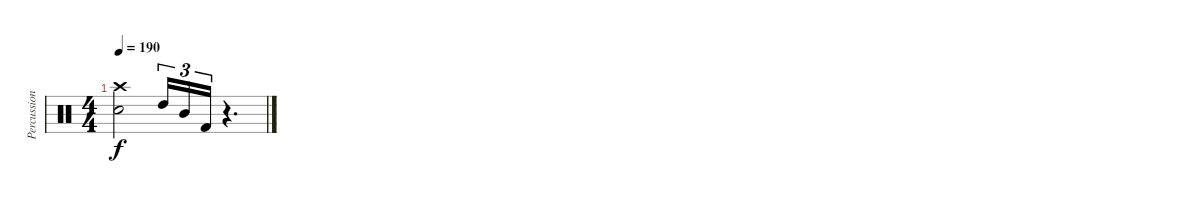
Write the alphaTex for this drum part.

\track ("Percussion" "Percussion") {instrument percussion}
\staff {score}
\articulation defaults
\ts (4 4)
\tempo 190
\clef neutral
\ks c
("Electric Snare (hit)" "Crash high (hit)").2{dy f} "High Tom (hit)".16{tu (3 2)} "Mid Tom (hit)".16{tu (3 2)} "Kick (hit) 2".16{tu (3 2)} r.4{d}
